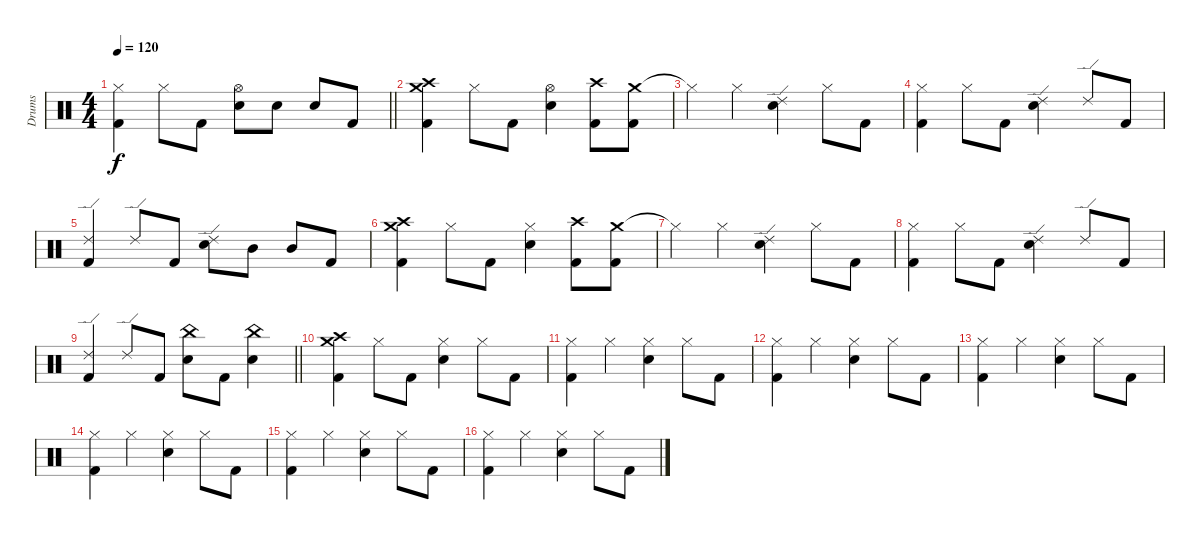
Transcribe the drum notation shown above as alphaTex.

\track ("Drums" "Drums") {instrument percussion}
\staff {score}
\articulation defaults
\ts (4 4)
\tempo 120
\clef neutral
\barLineRight lightlight
\ks c
("Hi-Hat (closed)" "Kick (hit) 2").4{dy f} "Hi-Hat (closed)".8 "Kick (hit) 2".8 ("Hi-Hat (open)" "Electric Snare (hit)").8 "Electric Snare (hit)".8 "Electric Snare (hit)".8 "Kick (hit) 2".8 |
("Crash medium (hit)" "Crash high (hit)" "Kick (hit) 2").4 "Hi-Hat (closed)".8 "Kick (hit) 2".8 ("Hi-Hat (open)" "Electric Snare (hit)").4 ("Crash high (hit)" "Kick (hit) 2").8 ("Crash medium (hit)" "Kick (hit) 2").8 |
"Hi-Hat (closed)"{t}.4 "Hi-Hat (closed)".4 ("Ride (edge) 2" "Electric Snare (hit)").4 "Hi-Hat (closed)".8 "Kick (hit) 2".8 |
("Hi-Hat (closed)" "Kick (hit) 2").4 "Hi-Hat (closed)".8 "Kick (hit) 2".8 ("Ride (edge) 2" "Electric Snare (hit)").4 "Ride (edge) 2".8 "Kick (hit) 2".8 |
("Ride (edge) 2" "Kick (hit) 2").4 "Ride (edge) 2".8 "Kick (hit) 2".8 ("Ride (edge) 2" "Electric Snare (hit)").8 "Mid Tom (hit)".8 "Mid Tom (hit)".8 "Kick (hit) 2".8 |
("Crash medium (hit)" "Crash high (hit)" "Kick (hit) 2").4 "Hi-Hat (closed)".8 "Kick (hit) 2".8 ("Hi-Hat (closed)" "Electric Snare (hit)").4 ("Crash high (hit)" "Kick (hit) 2").8 ("Crash medium (hit)" "Kick (hit) 2").8 |
"Hi-Hat (closed)"{t}.4 "Hi-Hat (closed)".4 ("Ride (edge) 2" "Electric Snare (hit)").4 "Hi-Hat (closed)".8 "Kick (hit) 2".8 |
("Hi-Hat (closed)" "Kick (hit) 2").4 "Hi-Hat (closed)".8 "Kick (hit) 2".8 ("Ride (edge) 2" "Electric Snare (hit)").4 "Ride (edge) 2".8 "Kick (hit) 2".8 |
\barLineRight lightlight
("Ride (edge) 2" "Kick (hit) 2").4 "Ride (edge) 2".8 "Kick (hit) 2".8 ("China (hit)" "Electric Snare (hit)").8 "Kick (hit) 2".8 ("China (hit)" "Electric Snare (hit)").4 |
("Crash high (hit)" "Crash medium (hit)" "Kick (hit) 2").4 "Hi-Hat (closed)".8 "Kick (hit) 2".8 ("Hi-Hat (closed)" "Electric Snare (hit)").4 "Hi-Hat (closed)".8 "Kick (hit) 2".8 |
("Hi-Hat (closed)" "Kick (hit) 2").4 "Hi-Hat (closed)".4 ("Hi-Hat (closed)" "Electric Snare (hit)").4 "Hi-Hat (closed)".8 "Kick (hit) 2".8 |
("Hi-Hat (closed)" "Kick (hit) 2").4 "Hi-Hat (closed)".4 ("Hi-Hat (closed)" "Electric Snare (hit)").4 "Hi-Hat (closed)".8 "Kick (hit) 2".8 |
("Hi-Hat (closed)" "Kick (hit) 2").4 "Hi-Hat (closed)".4 ("Hi-Hat (closed)" "Electric Snare (hit)").4 "Hi-Hat (closed)".8 "Kick (hit) 2".8 |
("Hi-Hat (closed)" "Kick (hit) 2").4 "Hi-Hat (closed)".4 ("Hi-Hat (closed)" "Electric Snare (hit)").4 "Hi-Hat (closed)".8 "Kick (hit) 2".8 |
("Hi-Hat (closed)" "Kick (hit) 2").4 "Hi-Hat (closed)".4 ("Hi-Hat (closed)" "Electric Snare (hit)").4 "Hi-Hat (closed)".8 "Kick (hit) 2".8 |
("Hi-Hat (closed)" "Kick (hit) 2").4 "Hi-Hat (closed)".4 ("Hi-Hat (closed)" "Electric Snare (hit)").4 "Hi-Hat (closed)".8 "Kick (hit) 2".8
